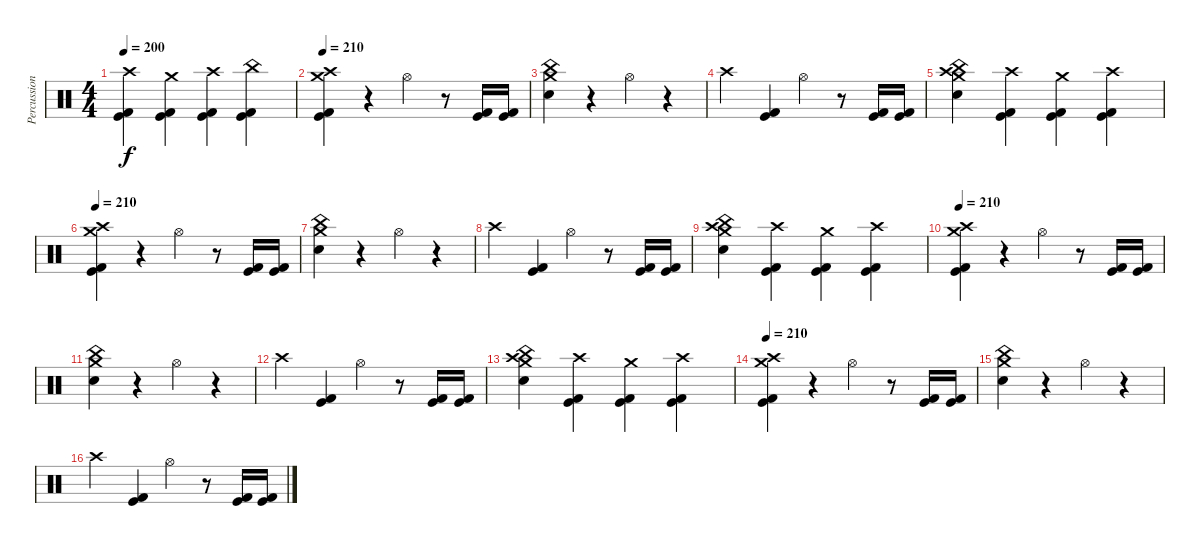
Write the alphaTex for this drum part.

\track ("Percussion" "Percussion") {instrument percussion}
\staff {score}
\articulation defaults
\ts (4 4)
\tempo 200
\clef neutral
\ks c
("Crash high (hit)" "Kick (hit)" "Kick (hit) 2").4{dy f} ("Crash medium (hit)" "Kick (hit)" "Kick (hit) 2").4 ("Crash high (hit)" "Kick (hit)" "Kick (hit) 2").4 ("China (hit)" "Kick (hit)" "Kick (hit) 2").4 |
\tempo 210
("Crash medium (hit)" "Crash high (hit)" "Kick (hit)" "Kick (hit) 2").4 r.4 "Hi-Hat (open)".4 r.8 ("Kick (hit)" "Kick (hit) 2").16 ("Kick (hit)" "Kick (hit) 2").16 |
("Crash medium (hit)" "China (hit)" "Electric Snare (hit)").4 r.4 "Hi-Hat (open)".4 r.4 |
"Crash high (hit)".4 ("Kick (hit)" "Kick (hit) 2").4 "Hi-Hat (open)".4 r.8 ("Kick (hit)" "Kick (hit) 2").16 ("Kick (hit)" "Kick (hit) 2").16 |
("Crash medium (hit)" "Crash high (hit)" "China (hit)" "Electric Snare (hit)").4 ("Crash high (hit)" "Kick (hit)" "Kick (hit) 2").4 ("Crash medium (hit)" "Kick (hit)" "Kick (hit) 2").4 ("Crash high (hit)" "Kick (hit)" "Kick (hit) 2").4 |
\tempo 210
("Crash medium (hit)" "Crash high (hit)" "Kick (hit)" "Kick (hit) 2").4 r.4 "Hi-Hat (open)".4 r.8 ("Kick (hit)" "Kick (hit) 2").16 ("Kick (hit)" "Kick (hit) 2").16 |
("Crash medium (hit)" "China (hit)" "Electric Snare (hit)").4 r.4 "Hi-Hat (open)".4 r.4 |
"Crash high (hit)".4 ("Kick (hit)" "Kick (hit) 2").4 "Hi-Hat (open)".4 r.8 ("Kick (hit)" "Kick (hit) 2").16 ("Kick (hit)" "Kick (hit) 2").16 |
("Crash medium (hit)" "Crash high (hit)" "China (hit)" "Electric Snare (hit)").4 ("Crash high (hit)" "Kick (hit)" "Kick (hit) 2").4 ("Crash medium (hit)" "Kick (hit)" "Kick (hit) 2").4 ("Crash high (hit)" "Kick (hit)" "Kick (hit) 2").4 |
\tempo 210
("Crash medium (hit)" "Crash high (hit)" "Kick (hit)" "Kick (hit) 2").4 r.4 "Hi-Hat (open)".4 r.8 ("Kick (hit)" "Kick (hit) 2").16 ("Kick (hit)" "Kick (hit) 2").16 |
("Crash medium (hit)" "China (hit)" "Electric Snare (hit)").4 r.4 "Hi-Hat (open)".4 r.4 |
"Crash high (hit)".4 ("Kick (hit)" "Kick (hit) 2").4 "Hi-Hat (open)".4 r.8 ("Kick (hit)" "Kick (hit) 2").16 ("Kick (hit)" "Kick (hit) 2").16 |
("Crash medium (hit)" "Crash high (hit)" "China (hit)" "Electric Snare (hit)").4 ("Crash high (hit)" "Kick (hit)" "Kick (hit) 2").4 ("Crash medium (hit)" "Kick (hit)" "Kick (hit) 2").4 ("Crash high (hit)" "Kick (hit)" "Kick (hit) 2").4 |
\tempo 210
("Crash medium (hit)" "Crash high (hit)" "Kick (hit)" "Kick (hit) 2").4 r.4 "Hi-Hat (open)".4 r.8 ("Kick (hit)" "Kick (hit) 2").16 ("Kick (hit)" "Kick (hit) 2").16 |
("Crash medium (hit)" "China (hit)" "Electric Snare (hit)").4 r.4 "Hi-Hat (open)".4 r.4 |
"Crash high (hit)".4 ("Kick (hit)" "Kick (hit) 2").4 "Hi-Hat (open)".4 r.8 ("Kick (hit)" "Kick (hit) 2").16 ("Kick (hit)" "Kick (hit) 2").16
